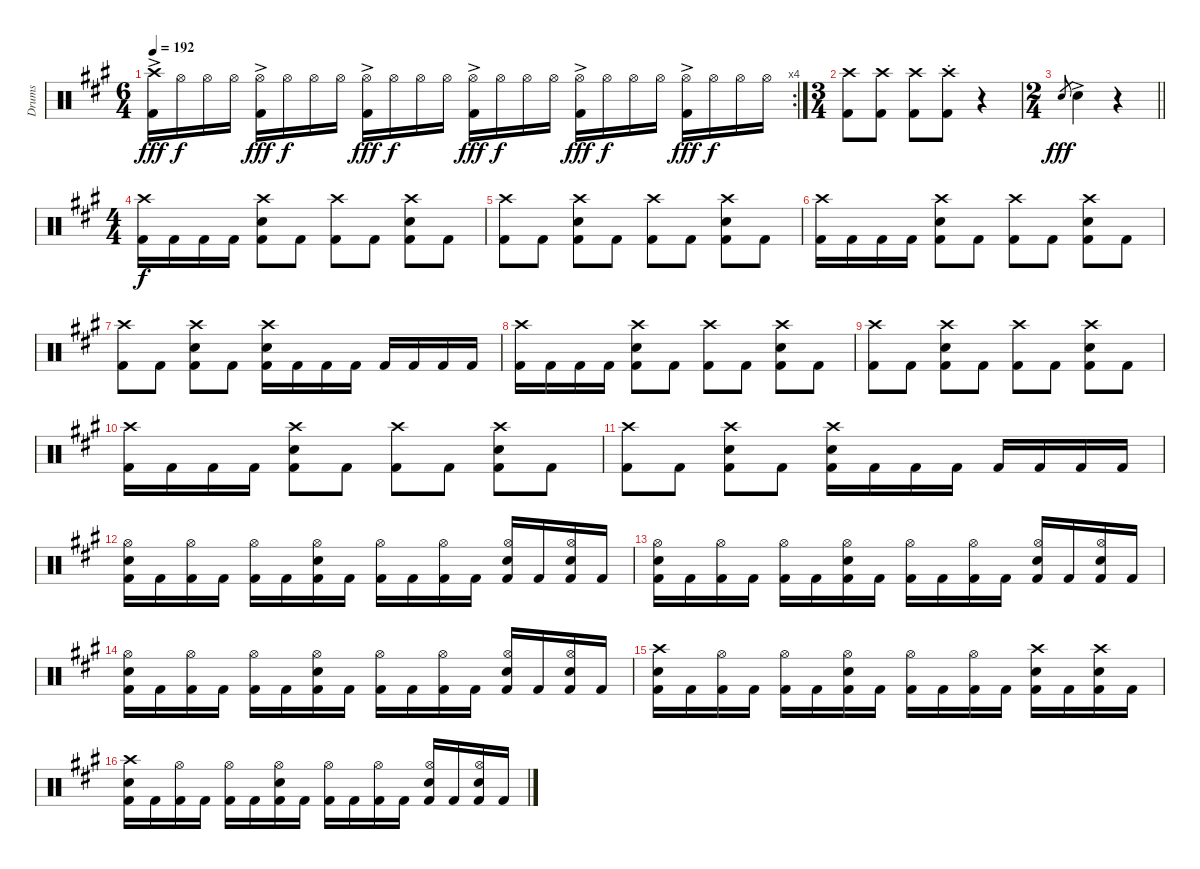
\track ("Drums" "Drums") {instrument percussion}
\staff {score}
\articulation defaults
\rc 4
\ts (6 4)
\tempo 192
\clef neutral
\ks f#minor
("Crash high (hit)"{ac} "Kick (hit) 2"{ac}).16{dy fff} "Hi-Hat (open)".16{dy f} "Hi-Hat (open)".16 "Hi-Hat (open)".16 ("Hi-Hat (open)"{ac} "Kick (hit) 2").16{dy fff} "Hi-Hat (open)".16{dy f} "Hi-Hat (open)".16 "Hi-Hat (open)".16 ("Hi-Hat (open)"{ac} "Kick (hit) 2").16{dy fff} "Hi-Hat (open)".16{dy f} "Hi-Hat (open)".16 "Hi-Hat (open)".16 ("Hi-Hat (open)"{ac} "Kick (hit) 2").16{dy fff} "Hi-Hat (open)".16{dy f} "Hi-Hat (open)".16 "Hi-Hat (open)".16 ("Hi-Hat (open)"{ac} "Kick (hit) 2").16{dy fff} "Hi-Hat (open)".16{dy f} "Hi-Hat (open)".16 "Hi-Hat (open)".16 ("Hi-Hat (open)"{ac} "Kick (hit) 2").16{dy fff} "Hi-Hat (open)".16{dy f} "Hi-Hat (open)".16 "Hi-Hat (open)".16 |
\ts (3 4)
("Crash high (hit)" "Kick (hit) 2").8 ("Crash high (hit)" "Kick (hit) 2").8 ("Crash high (hit)" "Kick (hit) 2").8 ("Crash high (hit)"{st} "Kick (hit) 2").8 r.4 |
\ts (2 4)
\barLineRight lightlight "Snare (hit) 2".8{gr dy fff} "Snare (hit) 2"{ac}.4
r.4 |
\ts (4 4)
("Crash high (hit)" "Kick (hit) 2").16{dy f} "Kick (hit) 2".16 "Kick (hit) 2".16 "Kick (hit) 2".16 ("Crash high (hit)" "Snare (hit) 2" "Kick (hit) 2").8 "Kick (hit) 2".8 ("Crash high (hit)" "Kick (hit) 2").8 "Kick (hit) 2".8 ("Crash high (hit)" "Snare (hit) 2" "Kick (hit) 2").8 "Kick (hit) 2".8 |
("Crash high (hit)" "Kick (hit) 2").8 "Kick (hit) 2".8 ("Crash high (hit)" "Snare (hit) 2" "Kick (hit) 2").8 "Kick (hit) 2".8 ("Crash high (hit)" "Kick (hit) 2").8 "Kick (hit) 2".8 ("Crash high (hit)" "Snare (hit) 2" "Kick (hit) 2").8 "Kick (hit) 2".8 |
("Crash high (hit)" "Kick (hit) 2").16 "Kick (hit) 2".16 "Kick (hit) 2".16 "Kick (hit) 2".16 ("Crash high (hit)" "Snare (hit) 2" "Kick (hit) 2").8 "Kick (hit) 2".8 ("Crash high (hit)" "Kick (hit) 2").8 "Kick (hit) 2".8 ("Crash high (hit)" "Snare (hit) 2" "Kick (hit) 2").8 "Kick (hit) 2".8 |
("Crash high (hit)" "Kick (hit) 2").8 "Kick (hit) 2".8 ("Crash high (hit)" "Snare (hit) 2" "Kick (hit) 2").8 "Kick (hit) 2".8 ("Crash high (hit)" "Snare (hit) 2" "Kick (hit) 2").16 "Kick (hit) 2".16 "Kick (hit) 2".16 "Kick (hit) 2".16 "Kick (hit) 2".16 "Kick (hit) 2".16 "Kick (hit) 2".16 "Kick (hit) 2".16 |
("Crash high (hit)" "Kick (hit) 2").16 "Kick (hit) 2".16 "Kick (hit) 2".16 "Kick (hit) 2".16 ("Crash high (hit)" "Snare (hit) 2" "Kick (hit) 2").8 "Kick (hit) 2".8 ("Crash high (hit)" "Kick (hit) 2").8 "Kick (hit) 2".8 ("Crash high (hit)" "Snare (hit) 2" "Kick (hit) 2").8 "Kick (hit) 2".8 |
("Crash high (hit)" "Kick (hit) 2").8 "Kick (hit) 2".8 ("Crash high (hit)" "Snare (hit) 2" "Kick (hit) 2").8 "Kick (hit) 2".8 ("Crash high (hit)" "Kick (hit) 2").8 "Kick (hit) 2".8 ("Crash high (hit)" "Snare (hit) 2" "Kick (hit) 2").8 "Kick (hit) 2".8 |
("Crash high (hit)" "Kick (hit) 2").16 "Kick (hit) 2".16 "Kick (hit) 2".16 "Kick (hit) 2".16 ("Crash high (hit)" "Snare (hit) 2" "Kick (hit) 2").8 "Kick (hit) 2".8 ("Crash high (hit)" "Kick (hit) 2").8 "Kick (hit) 2".8 ("Crash high (hit)" "Snare (hit) 2" "Kick (hit) 2").8 "Kick (hit) 2".8 |
("Crash high (hit)" "Kick (hit) 2").8 "Kick (hit) 2".8 ("Crash high (hit)" "Snare (hit) 2" "Kick (hit) 2").8 "Kick (hit) 2".8 ("Crash high (hit)" "Snare (hit) 2" "Kick (hit) 2").16 "Kick (hit) 2".16 "Kick (hit) 2".16 "Kick (hit) 2".16 "Kick (hit) 2".16 "Kick (hit) 2".16 "Kick (hit) 2".16 "Kick (hit) 2".16 |
("Hi-Hat (open)" "Snare (hit) 2" "Kick (hit) 2").16 "Kick (hit) 2".16 ("Hi-Hat (open)" "Kick (hit) 2").16 "Kick (hit) 2".16 ("Hi-Hat (open)" "Kick (hit) 2").16 "Kick (hit) 2".16 ("Hi-Hat (open)" "Snare (hit) 2" "Kick (hit) 2").16 "Kick (hit) 2".16 ("Hi-Hat (open)" "Kick (hit) 2").16 "Kick (hit) 2".16 ("Hi-Hat (open)" "Kick (hit) 2").16 "Kick (hit) 2".16 ("Hi-Hat (open)" "Snare (hit) 2" "Kick (hit) 2").16 "Kick (hit) 2".16 ("Hi-Hat (open)" "Snare (hit) 2" "Kick (hit) 2").16 "Kick (hit) 2".16 |
("Hi-Hat (open)" "Snare (hit) 2" "Kick (hit) 2").16 "Kick (hit) 2".16 ("Hi-Hat (open)" "Kick (hit) 2").16 "Kick (hit) 2".16 ("Hi-Hat (open)" "Kick (hit) 2").16 "Kick (hit) 2".16 ("Hi-Hat (open)" "Snare (hit) 2" "Kick (hit) 2").16 "Kick (hit) 2".16 ("Hi-Hat (open)" "Kick (hit) 2").16 "Kick (hit) 2".16 ("Hi-Hat (open)" "Kick (hit) 2").16 "Kick (hit) 2".16 ("Hi-Hat (open)" "Snare (hit) 2" "Kick (hit) 2").16 "Kick (hit) 2".16 ("Hi-Hat (open)" "Snare (hit) 2" "Kick (hit) 2").16 "Kick (hit) 2".16 |
("Hi-Hat (open)" "Snare (hit) 2" "Kick (hit) 2").16 "Kick (hit) 2".16 ("Hi-Hat (open)" "Kick (hit) 2").16 "Kick (hit) 2".16 ("Hi-Hat (open)" "Kick (hit) 2").16 "Kick (hit) 2".16 ("Hi-Hat (open)" "Snare (hit) 2" "Kick (hit) 2").16 "Kick (hit) 2".16 ("Hi-Hat (open)" "Kick (hit) 2").16 "Kick (hit) 2".16 ("Hi-Hat (open)" "Kick (hit) 2").16 "Kick (hit) 2".16 ("Hi-Hat (open)" "Snare (hit) 2" "Kick (hit) 2").16 "Kick (hit) 2".16 ("Hi-Hat (open)" "Snare (hit) 2" "Kick (hit) 2").16 "Kick (hit) 2".16 |
("Crash high (hit)" "Snare (hit) 2" "Kick (hit) 2").16 "Kick (hit) 2".16 ("Hi-Hat (open)" "Kick (hit) 2").16 "Kick (hit) 2".16 ("Hi-Hat (open)" "Kick (hit) 2").16 "Kick (hit) 2".16 ("Hi-Hat (open)" "Snare (hit) 2" "Kick (hit) 2").16 "Kick (hit) 2".16 ("Hi-Hat (open)" "Kick (hit) 2").16 "Kick (hit) 2".16 ("Hi-Hat (open)" "Kick (hit) 2").16 "Kick (hit) 2".16 ("Crash high (hit)" "Snare (hit) 2" "Kick (hit) 2").16 "Kick (hit) 2".16 ("Crash high (hit)" "Snare (hit) 2" "Kick (hit) 2").16 "Kick (hit) 2".16 |
("Crash high (hit)" "Snare (hit) 2" "Kick (hit) 2").16 "Kick (hit) 2".16 ("Hi-Hat (open)" "Kick (hit) 2").16 "Kick (hit) 2".16 ("Hi-Hat (open)" "Kick (hit) 2").16 "Kick (hit) 2".16 ("Hi-Hat (open)" "Snare (hit) 2" "Kick (hit) 2").16 "Kick (hit) 2".16 ("Hi-Hat (open)" "Kick (hit) 2").16 "Kick (hit) 2".16 ("Hi-Hat (open)" "Kick (hit) 2").16 "Kick (hit) 2".16 ("Hi-Hat (open)" "Snare (hit) 2" "Kick (hit) 2").16 "Kick (hit) 2".16 ("Hi-Hat (open)" "Snare (hit) 2" "Kick (hit) 2").16 "Kick (hit) 2".16
